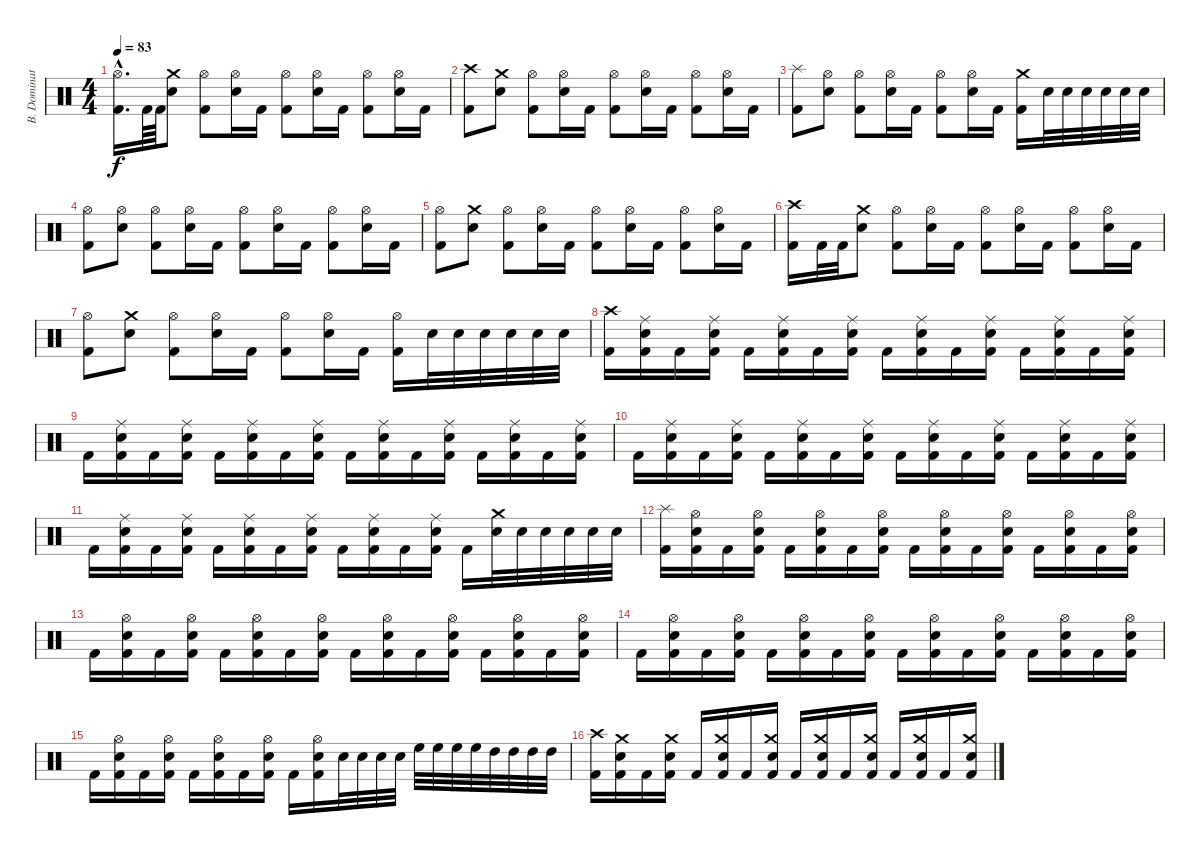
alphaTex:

\track ("B. Dominator" "B. Dominat") {instrument percussion}
\staff {score}
\articulation defaults
\ts (4 4)
\tempo 83
\clef neutral
\ks c
("Hi-Hat (open)"{hac} "Kick (hit) 2"{hac}).16{d dy f} "Kick (hit) 2".64 "Kick (hit) 2".64 ("Crash medium (hit)" "Electric Snare (hit)").8 ("Hi-Hat (open)" "Kick (hit) 2").8 ("Hi-Hat (open)" "Electric Snare (hit)").16 "Kick (hit) 2".16 ("Hi-Hat (open)" "Kick (hit) 2").8 ("Hi-Hat (open)" "Electric Snare (hit)").16 "Kick (hit) 2".16 ("Hi-Hat (open)" "Kick (hit) 2").8 ("Hi-Hat (open)" "Electric Snare (hit)").16 "Kick (hit) 2".16 |
("Crash high (hit)" "Kick (hit) 2").8 ("Crash medium (hit)" "Electric Snare (hit)").8 ("Hi-Hat (open)" "Kick (hit) 2").8 ("Hi-Hat (open)" "Electric Snare (hit)").16 "Kick (hit) 2".16 ("Hi-Hat (open)" "Kick (hit) 2").8 ("Hi-Hat (open)" "Electric Snare (hit)").16 "Kick (hit) 2".16 ("Hi-Hat (open)" "Kick (hit) 2").8 ("Hi-Hat (open)" "Electric Snare (hit)").16 "Kick (hit) 2".16 |
("Splash (hit)" "Kick (hit) 2").8 ("Hi-Hat (open)" "Electric Snare (hit)").8 ("Hi-Hat (open)" "Kick (hit) 2").8 ("Hi-Hat (open)" "Electric Snare (hit)").16 "Kick (hit) 2".16 ("Hi-Hat (open)" "Kick (hit) 2").8 ("Hi-Hat (open)" "Electric Snare (hit)").16 "Kick (hit) 2".16 ("Crash medium (hit)" "Kick (hit) 2").16 "Electric Snare (hit)".32 "Electric Snare (hit)".32 "Electric Snare (hit)".32 "Electric Snare (hit)".32 "Electric Snare (hit)".32 "Electric Snare (hit)".32 |
("Hi-Hat (open)" "Kick (hit) 2").8 ("Hi-Hat (open)" "Electric Snare (hit)").8 ("Hi-Hat (open)" "Kick (hit) 2").8 ("Hi-Hat (open)" "Electric Snare (hit)").16 "Kick (hit) 2".16 ("Hi-Hat (open)" "Kick (hit) 2").8 ("Hi-Hat (open)" "Electric Snare (hit)").16 "Kick (hit) 2".16 ("Hi-Hat (open)" "Kick (hit) 2").8 ("Hi-Hat (open)" "Electric Snare (hit)").16 "Kick (hit) 2".16 |
("Hi-Hat (open)" "Kick (hit) 2").8 ("Crash medium (hit)" "Electric Snare (hit)").8 ("Hi-Hat (open)" "Kick (hit) 2").8 ("Hi-Hat (open)" "Electric Snare (hit)").16 "Kick (hit) 2".16 ("Hi-Hat (open)" "Kick (hit) 2").8 ("Hi-Hat (open)" "Electric Snare (hit)").16 "Kick (hit) 2".16 ("Hi-Hat (open)" "Kick (hit) 2").8 ("Hi-Hat (open)" "Electric Snare (hit)").16 "Kick (hit) 2".16 |
("Crash high (hit)" "Kick (hit) 2").16 "Kick (hit) 2".32 "Kick (hit) 2".32 ("Crash medium (hit)" "Electric Snare (hit)").8 ("Hi-Hat (open)" "Kick (hit) 2").8 ("Hi-Hat (open)" "Electric Snare (hit)").16 "Kick (hit) 2".16 ("Hi-Hat (open)" "Kick (hit) 2").8 ("Hi-Hat (open)" "Electric Snare (hit)").16 "Kick (hit) 2".16 ("Hi-Hat (open)" "Kick (hit) 2").8 ("Hi-Hat (open)" "Electric Snare (hit)").16 "Kick (hit) 2".16 |
("Hi-Hat (open)" "Kick (hit) 2").8 ("Crash medium (hit)" "Electric Snare (hit)").8 ("Hi-Hat (open)" "Kick (hit) 2").8 ("Hi-Hat (open)" "Electric Snare (hit)").16 "Kick (hit) 2".16 ("Hi-Hat (open)" "Kick (hit) 2").8 ("Hi-Hat (open)" "Electric Snare (hit)").16 "Kick (hit) 2".16 ("Hi-Hat (open)" "Kick (hit) 2").16 "Electric Snare (hit)".32 "Electric Snare (hit)".32 "Electric Snare (hit)".32 "Electric Snare (hit)".32 "Electric Snare (hit)".32 "Electric Snare (hit)".32 |
("Crash high (hit)" "Kick (hit) 2").16 ("Ride (middle)" "Electric Snare (hit)" "Kick (hit) 2").16 "Kick (hit) 2".16 ("Ride (middle)" "Electric Snare (hit)" "Kick (hit) 2").16 "Kick (hit) 2".16 ("Ride (middle)" "Electric Snare (hit)" "Kick (hit) 2").16 "Kick (hit) 2".16 ("Ride (middle)" "Electric Snare (hit)" "Kick (hit) 2").16 "Kick (hit) 2".16 ("Ride (middle)" "Electric Snare (hit)" "Kick (hit) 2").16 "Kick (hit) 2".16 ("Ride (middle)" "Electric Snare (hit)" "Kick (hit) 2").16 "Kick (hit) 2".16 ("Ride (middle)" "Electric Snare (hit)" "Kick (hit) 2").16 "Kick (hit) 2".16 ("Ride (middle)" "Electric Snare (hit)" "Kick (hit) 2").16 |
"Kick (hit) 2".16 ("Ride (middle)" "Electric Snare (hit)" "Kick (hit) 2").16 "Kick (hit) 2".16 ("Ride (middle)" "Electric Snare (hit)" "Kick (hit) 2").16 "Kick (hit) 2".16 ("Ride (middle)" "Electric Snare (hit)" "Kick (hit) 2").16 "Kick (hit) 2".16 ("Ride (middle)" "Electric Snare (hit)" "Kick (hit) 2").16 "Kick (hit) 2".16 ("Ride (middle)" "Electric Snare (hit)" "Kick (hit) 2").16 "Kick (hit) 2".16 ("Ride (middle)" "Electric Snare (hit)" "Kick (hit) 2").16 "Kick (hit) 2".16 ("Ride (middle)" "Electric Snare (hit)" "Kick (hit) 2").16 "Kick (hit) 2".16 ("Ride (middle)" "Electric Snare (hit)" "Kick (hit) 2").16 |
"Kick (hit) 2".16 ("Ride (middle)" "Electric Snare (hit)" "Kick (hit) 2").16 "Kick (hit) 2".16 ("Ride (middle)" "Electric Snare (hit)" "Kick (hit) 2").16 "Kick (hit) 2".16 ("Ride (middle)" "Electric Snare (hit)" "Kick (hit) 2").16 "Kick (hit) 2".16 ("Ride (middle)" "Electric Snare (hit)" "Kick (hit) 2").16 "Kick (hit) 2".16 ("Ride (middle)" "Electric Snare (hit)" "Kick (hit) 2").16 "Kick (hit) 2".16 ("Ride (middle)" "Electric Snare (hit)" "Kick (hit) 2").16 "Kick (hit) 2".16 ("Ride (middle)" "Electric Snare (hit)" "Kick (hit) 2").16 "Kick (hit) 2".16 ("Ride (middle)" "Electric Snare (hit)" "Kick (hit) 2").16 |
"Kick (hit) 2".16 ("Ride (middle)" "Electric Snare (hit)" "Kick (hit) 2").16 "Kick (hit) 2".16 ("Ride (middle)" "Electric Snare (hit)" "Kick (hit) 2").16 "Kick (hit) 2".16 ("Ride (middle)" "Electric Snare (hit)" "Kick (hit) 2").16 "Kick (hit) 2".16 ("Ride (middle)" "Electric Snare (hit)" "Kick (hit) 2").16 "Kick (hit) 2".16 ("Ride (middle)" "Electric Snare (hit)" "Kick (hit) 2").16 "Kick (hit) 2".16 ("Ride (middle)" "Electric Snare (hit)" "Kick (hit) 2").16 "Kick (hit) 2".16 ("Crash medium (hit)" "Electric Snare (hit)").32 "Electric Snare (hit)".32 "Electric Snare (hit)".32 "Electric Snare (hit)".32 "Electric Snare (hit)".32 "Electric Snare (hit)".32 |
("Splash (hit)" "Kick (hit) 2").16 ("Hi-Hat (open)" "Electric Snare (hit)" "Kick (hit) 2").16 "Kick (hit) 2".16 ("Hi-Hat (open)" "Electric Snare (hit)" "Kick (hit) 2").16 "Kick (hit) 2".16 ("Hi-Hat (open)" "Electric Snare (hit)" "Kick (hit) 2").16 "Kick (hit) 2".16 ("Hi-Hat (open)" "Electric Snare (hit)" "Kick (hit) 2").16 "Kick (hit) 2".16 ("Hi-Hat (open)" "Electric Snare (hit)" "Kick (hit) 2").16 "Kick (hit) 2".16 ("Hi-Hat (open)" "Electric Snare (hit)" "Kick (hit) 2").16 "Kick (hit) 2".16 ("Hi-Hat (open)" "Electric Snare (hit)" "Kick (hit) 2").16 "Kick (hit) 2".16 ("Hi-Hat (open)" "Electric Snare (hit)" "Kick (hit) 2").16 |
"Kick (hit) 2".16 ("Hi-Hat (open)" "Electric Snare (hit)" "Kick (hit) 2").16 "Kick (hit) 2".16 ("Hi-Hat (open)" "Electric Snare (hit)" "Kick (hit) 2").16 "Kick (hit) 2".16 ("Hi-Hat (open)" "Electric Snare (hit)" "Kick (hit) 2").16 "Kick (hit) 2".16 ("Hi-Hat (open)" "Electric Snare (hit)" "Kick (hit) 2").16 "Kick (hit) 2".16 ("Hi-Hat (open)" "Electric Snare (hit)" "Kick (hit) 2").16 "Kick (hit) 2".16 ("Hi-Hat (open)" "Electric Snare (hit)" "Kick (hit) 2").16 "Kick (hit) 2".16 ("Hi-Hat (open)" "Electric Snare (hit)" "Kick (hit) 2").16 "Kick (hit) 2".16 ("Hi-Hat (open)" "Electric Snare (hit)" "Kick (hit) 2").16 |
"Kick (hit) 2".16 ("Hi-Hat (open)" "Electric Snare (hit)" "Kick (hit) 2").16 "Kick (hit) 2".16 ("Hi-Hat (open)" "Electric Snare (hit)" "Kick (hit) 2").16 "Kick (hit) 2".16 ("Hi-Hat (open)" "Electric Snare (hit)" "Kick (hit) 2").16 "Kick (hit) 2".16 ("Hi-Hat (open)" "Electric Snare (hit)" "Kick (hit) 2").16 "Kick (hit) 2".16 ("Hi-Hat (open)" "Electric Snare (hit)" "Kick (hit) 2").16 "Kick (hit) 2".16 ("Hi-Hat (open)" "Electric Snare (hit)" "Kick (hit) 2").16 "Kick (hit) 2".16 ("Hi-Hat (open)" "Electric Snare (hit)" "Kick (hit) 2").16 "Kick (hit) 2".16 ("Hi-Hat (open)" "Electric Snare (hit)" "Kick (hit) 2").16 |
"Kick (hit) 2".16 ("Hi-Hat (open)" "Electric Snare (hit)" "Kick (hit) 2").16 "Kick (hit) 2".16 ("Hi-Hat (open)" "Electric Snare (hit)" "Kick (hit) 2").16 "Kick (hit) 2".16 ("Hi-Hat (open)" "Electric Snare (hit)" "Kick (hit) 2").16 "Kick (hit) 2".16 ("Hi-Hat (open)" "Electric Snare (hit)" "Kick (hit) 2").16 "Kick (hit) 2".16 ("Hi-Hat (open)" "Electric Snare (hit)" "Kick (hit) 2").16 "Electric Snare (hit)".32 "Electric Snare (hit)".32 "Electric Snare (hit)".32 "Electric Snare (hit)".32 "High Floor Tom (hit)".32 "High Floor Tom (hit)".32 "High Floor Tom (hit)".32 "High Floor Tom (hit)".32 "High Tom (hit)".32 "High Tom (hit)".32 "High Tom (hit)".32 "High Tom (hit)".32 |
("Crash high (hit)" "Kick (hit) 2").16 ("Crash medium (hit)" "Electric Snare (hit)" "Kick (hit) 2").16 "Kick (hit) 2".16 ("Crash medium (hit)" "Electric Snare (hit)" "Kick (hit) 2").16 "Kick (hit) 2".16 ("Crash medium (hit)" "Electric Snare (hit)" "Kick (hit) 2").16 "Kick (hit) 2".16 ("Crash medium (hit)" "Electric Snare (hit)" "Kick (hit) 2").16 "Kick (hit) 2".16 ("Crash medium (hit)" "Electric Snare (hit)" "Kick (hit) 2").16 "Kick (hit) 2".16 ("Crash medium (hit)" "Electric Snare (hit)" "Kick (hit) 2").16 "Kick (hit) 2".16 ("Crash medium (hit)" "Electric Snare (hit)" "Kick (hit) 2").16 "Kick (hit) 2".16 ("Crash medium (hit)" "Electric Snare (hit)" "Kick (hit) 2").16
